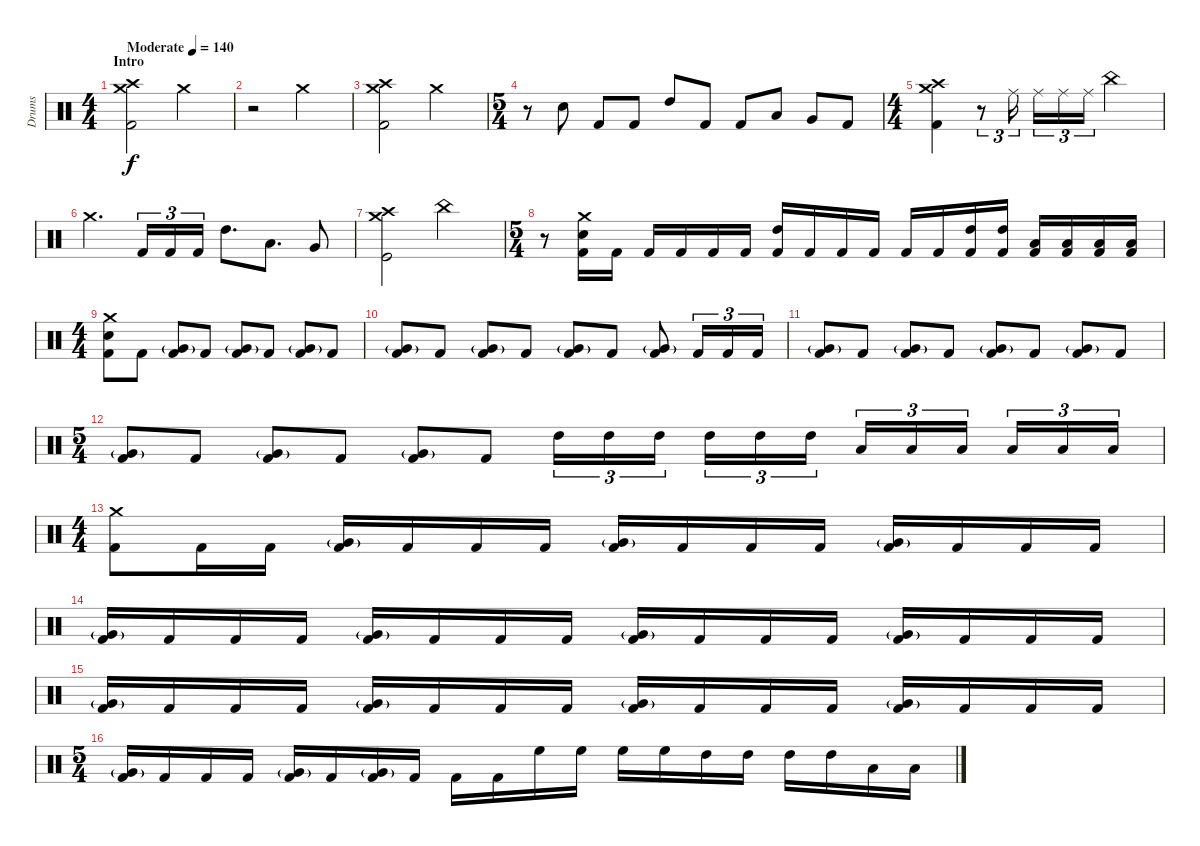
\track ("Drums" "Drums") {instrument percussion}
\staff {score}
\articulation defaults
\ts (4 4)
\section ("" "Intro")
\tempo (140 "Moderate")
\clef neutral
\ks c
("Crash high (hit)" "Crash medium (hit)" "Kick (hit) 2").2{dy f} "Crash medium (hit)".2 |
r.2 "Crash medium (hit)".2 |
("Crash high (hit)" "Crash medium (hit)" "Kick (hit) 2").2 "Crash medium (hit)".2 |
\ts (5 4)
r.8 "Snare (hit) 2".8 "Kick (hit) 2".8 "Kick (hit) 2".8 "High Tom (hit)".8 "Kick (hit) 2".8 "Kick (hit) 2".8 "Low Tom (hit)".8 "Very Low Tom (hit)".8 "Kick (hit) 2".8 |
\ts (4 4)
("Crash high (hit)" "Crash medium (hit)" "Kick (hit) 2").4 r.8{tu (3 2)} "Ride (middle)".16{tu (3 2)} "Ride (middle)".16{tu (3 2)} "Ride (middle)".16{tu (3 2)} "Ride (middle)".16{tu (3 2)} "China (hit)".2 |
"Crash medium (hit)".4{d} "Kick (hit) 2".16{tu (3 2)} "Kick (hit) 2".16{tu (3 2)} "Kick (hit) 2".16{tu (3 2)} "High Tom (hit)".8{d} "Low Tom (hit)".8{d} "Very Low Tom (hit)".8 |
("Crash high (hit)" "Crash medium (hit)" "Kick (hit)").2 "China (hit)".2 |
\ts (5 4)
r.8 ("Crash medium (hit)" "Snare (hit) 2" "Kick (hit) 2").16 "Kick (hit) 2".16 "Kick (hit) 2".16 "Kick (hit) 2".16 "Kick (hit) 2".16 "Kick (hit) 2".16 ("High Tom (hit)" "Kick (hit) 2").16 "Kick (hit) 2".16 "Kick (hit) 2".16 "Kick (hit) 2".16 "Kick (hit) 2".16 "Kick (hit) 2".16 ("High Tom (hit)" "Kick (hit) 2").16 ("High Tom (hit)" "Kick (hit) 2").16 ("Low Tom (hit)" "Kick (hit) 2").16 ("Low Tom (hit)" "Kick (hit) 2").16 ("Low Tom (hit)" "Kick (hit) 2").16 ("Low Tom (hit)" "Kick (hit) 2").16 |
\ts (4 4)
("Crash medium (hit)" "Snare (hit) 2" "Kick (hit) 2").8 "Kick (hit) 2".8 ("Very Low Tom (hit)"{g} "Kick (hit) 2").8 "Kick (hit) 2".8 ("Very Low Tom (hit)"{g} "Kick (hit) 2").8 "Kick (hit) 2".8 ("Very Low Tom (hit)"{g} "Kick (hit) 2").8 "Kick (hit) 2".8 |
("Very Low Tom (hit)"{g} "Kick (hit) 2").8 "Kick (hit) 2".8 ("Very Low Tom (hit)"{g} "Kick (hit) 2").8 "Kick (hit) 2".8 ("Very Low Tom (hit)"{g} "Kick (hit) 2").8 "Kick (hit) 2".8 ("Very Low Tom (hit)"{g} "Kick (hit) 2").8 "Kick (hit) 2".16{tu (3 2)} "Kick (hit) 2".16{tu (3 2)} "Kick (hit) 2".16{tu (3 2)} |
("Very Low Tom (hit)"{g} "Kick (hit) 2").8 "Kick (hit) 2".8 ("Very Low Tom (hit)"{g} "Kick (hit) 2").8 "Kick (hit) 2".8 ("Very Low Tom (hit)"{g} "Kick (hit) 2").8 "Kick (hit) 2".8 ("Very Low Tom (hit)"{g} "Kick (hit) 2").8 "Kick (hit) 2".8 |
\ts (5 4)
("Very Low Tom (hit)"{g} "Kick (hit) 2").8 "Kick (hit) 2".8 ("Very Low Tom (hit)"{g} "Kick (hit) 2").8 "Kick (hit) 2".8 ("Very Low Tom (hit)"{g} "Kick (hit) 2").8 "Kick (hit) 2".8 "High Tom (hit)".16{tu (3 2)} "High Tom (hit)".16{tu (3 2)} "High Tom (hit)".16{tu (3 2)} "High Tom (hit)".16{tu (3 2)} "High Tom (hit)".16{tu (3 2)} "High Tom (hit)".16{tu (3 2)} "Low Tom (hit)".16{tu (3 2)} "Low Tom (hit)".16{tu (3 2)} "Low Tom (hit)".16{tu (3 2)} "Low Tom (hit)".16{tu (3 2)} "Low Tom (hit)".16{tu (3 2)} "Low Tom (hit)".16{tu (3 2)} |
\ts (4 4)
("Crash medium (hit)" "Kick (hit) 2").8 "Kick (hit) 2".16 "Kick (hit) 2".16 ("Very Low Tom (hit)"{g} "Kick (hit) 2").16 "Kick (hit) 2".16 "Kick (hit) 2".16 "Kick (hit) 2".16 ("Very Low Tom (hit)"{g} "Kick (hit) 2").16 "Kick (hit) 2".16 "Kick (hit) 2".16 "Kick (hit) 2".16 ("Very Low Tom (hit)"{g} "Kick (hit) 2").16 "Kick (hit) 2".16 "Kick (hit) 2".16 "Kick (hit) 2".16 |
("Very Low Tom (hit)"{g} "Kick (hit) 2").16 "Kick (hit) 2".16 "Kick (hit) 2".16 "Kick (hit) 2".16 ("Very Low Tom (hit)"{g} "Kick (hit) 2").16 "Kick (hit) 2".16 "Kick (hit) 2".16 "Kick (hit) 2".16 ("Very Low Tom (hit)"{g} "Kick (hit) 2").16 "Kick (hit) 2".16 "Kick (hit) 2".16 "Kick (hit) 2".16 ("Very Low Tom (hit)"{g} "Kick (hit) 2").16 "Kick (hit) 2".16 "Kick (hit) 2".16 "Kick (hit) 2".16 |
("Very Low Tom (hit)"{g} "Kick (hit) 2").16 "Kick (hit) 2".16 "Kick (hit) 2".16 "Kick (hit) 2".16 ("Very Low Tom (hit)"{g} "Kick (hit) 2").16 "Kick (hit) 2".16 "Kick (hit) 2".16 "Kick (hit) 2".16 ("Very Low Tom (hit)"{g} "Kick (hit) 2").16 "Kick (hit) 2".16 "Kick (hit) 2".16 "Kick (hit) 2".16 ("Very Low Tom (hit)"{g} "Kick (hit) 2").16 "Kick (hit) 2".16 "Kick (hit) 2".16 "Kick (hit) 2".16 |
\ts (5 4)
("Very Low Tom (hit)"{g} "Kick (hit) 2").16 "Kick (hit) 2".16 "Kick (hit) 2".16 "Kick (hit) 2".16 ("Very Low Tom (hit)"{g} "Kick (hit) 2").16 "Kick (hit) 2".16 ("Very Low Tom (hit)"{g} "Kick (hit) 2").16 "Kick (hit) 2".16 "Kick (hit) 2".16 "Kick (hit) 2".16 "High Floor Tom (hit)".16 "High Floor Tom (hit)".16 "High Floor Tom (hit)".16 "High Floor Tom (hit)".16 "High Tom (hit)".16 "High Tom (hit)".16 "High Tom (hit)".16 "High Tom (hit)".16 "Low Tom (hit)".16 "Low Tom (hit)".16
